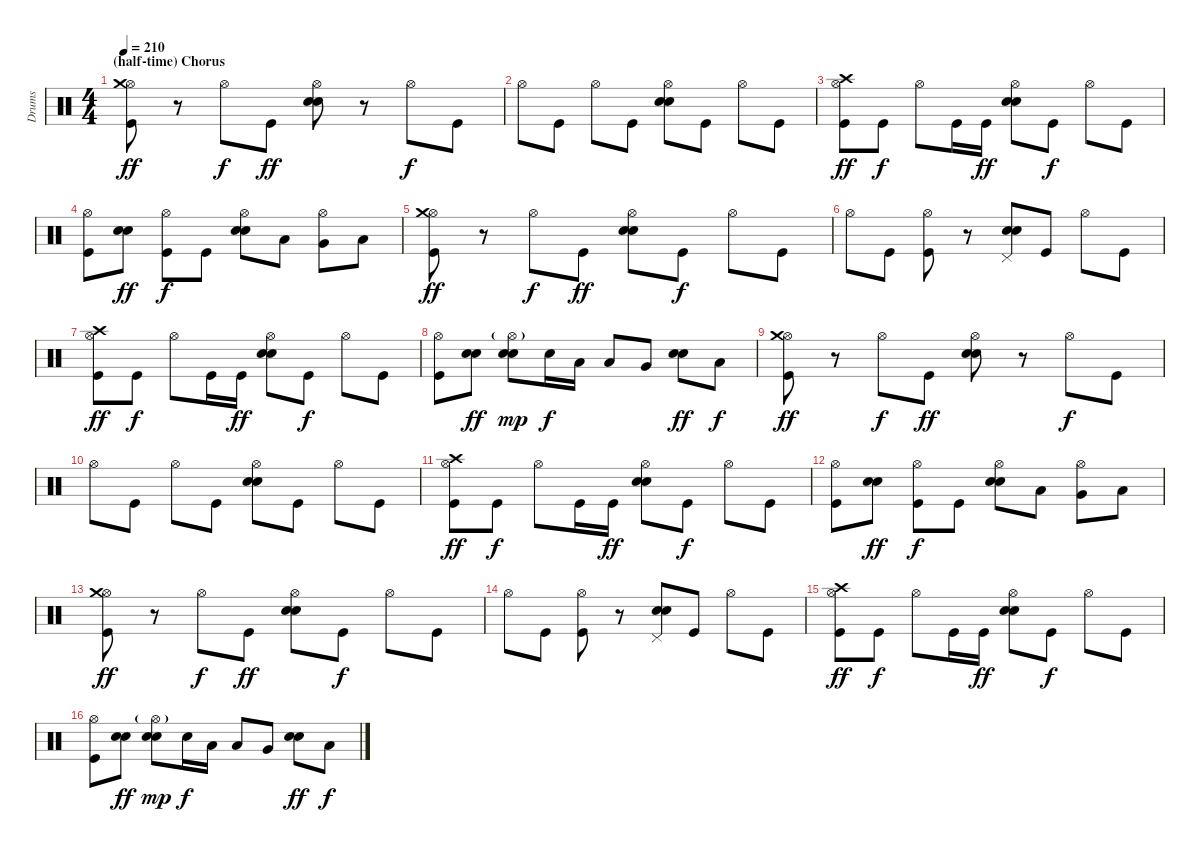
\track ("Drums" "Drums") {instrument percussion}
\staff {score}
\articulation defaults
\ts (4 4)
\section ("" "(half-time) Chorus")
\tempo 210
\clef neutral
\ks c
("Kick (hit)" "Hi-Hat (open)" "Crash medium (hit)").8{dy ff} r.8 "Hi-Hat (open)".8{dy f} "Kick (hit)".8{dy ff} ("Electric Snare (hit)" "Electric Snare (hit)" "Hi-Hat (open)").8 r.8 "Hi-Hat (open)".8{dy f} "Kick (hit)".8 |
"Hi-Hat (open)".8 "Kick (hit)".8 "Hi-Hat (open)".8 "Kick (hit)".8 ("Electric Snare (hit)" "Electric Snare (hit)" "Hi-Hat (open)").8 "Kick (hit)".8 "Hi-Hat (open)".8 "Kick (hit)".8 |
("Kick (hit)" "Hi-Hat (open)" "Crash high (hit)").8{dy ff} "Kick (hit)".8{dy f} "Hi-Hat (open)".8 "Kick (hit)".16 "Kick (hit)".16{dy ff} ("Electric Snare (hit)" "Electric Snare (hit)" "Hi-Hat (open)").8 "Kick (hit)".8{dy f} "Hi-Hat (open)".8 "Kick (hit)".8 |
("Kick (hit)" "Hi-Hat (open)").8 ("Electric Snare (hit)" "Electric Snare (hit)").8{dy ff} ("Kick (hit)" "Hi-Hat (open)").8{dy f} "Kick (hit)".8 ("Electric Snare (hit)" "Electric Snare (hit)" "Hi-Hat (open)").8 "Low Tom (hit)".8 ("Very Low Tom (hit)" "Hi-Hat (open)").8 "Low Floor Tom (hit)".8 |
("Kick (hit)" "Hi-Hat (open)" "Crash medium (hit)").8{dy ff} r.8 "Hi-Hat (open)".8{dy f} "Kick (hit)".8{dy ff} ("Electric Snare (hit)" "Electric Snare (hit)" "Hi-Hat (open)").8 "Kick (hit)".8{dy f} "Hi-Hat (open)".8 "Kick (hit)".8 |
"Hi-Hat (open)".8 "Kick (hit)".8 ("Kick (hit)" "Hi-Hat (open)").8 r.8 ("Electric Snare (hit)" "Electric Snare (hit)" "Pedal Hi-Hat (hit)").8 "Kick (hit)".8 "Hi-Hat (open)".8 "Kick (hit)".8 |
("Kick (hit)" "Hi-Hat (open)" "Crash high (hit)").8{dy ff} "Kick (hit)".8{dy f} "Hi-Hat (open)".8 "Kick (hit)".16 "Kick (hit)".16{dy ff} ("Electric Snare (hit)" "Electric Snare (hit)" "Hi-Hat (open)").8 "Kick (hit)".8{dy f} "Hi-Hat (open)".8 "Kick (hit)".8 |
("Kick (hit)" "Hi-Hat (open)").8 ("Electric Snare (hit)" "Electric Snare (hit)").8{dy ff} ("Electric Snare (hit)" "Electric Snare (hit)" "Hi-Hat (open)"{g}).8{dy mp} "Electric Snare (hit)".16{dy f} "Low Tom (hit)".16 "Low Tom (hit)".8 "Very Low Tom (hit)".8 ("Electric Snare (hit)" "Electric Snare (hit)").8{dy ff} "Low Floor Tom (hit)".8{dy f} |
("Kick (hit)" "Hi-Hat (open)" "Crash medium (hit)").8{dy ff} r.8 "Hi-Hat (open)".8{dy f} "Kick (hit)".8{dy ff} ("Electric Snare (hit)" "Electric Snare (hit)" "Hi-Hat (open)").8 r.8 "Hi-Hat (open)".8{dy f} "Kick (hit)".8 |
"Hi-Hat (open)".8 "Kick (hit)".8 "Hi-Hat (open)".8 "Kick (hit)".8 ("Electric Snare (hit)" "Electric Snare (hit)" "Hi-Hat (open)").8 "Kick (hit)".8 "Hi-Hat (open)".8 "Kick (hit)".8 |
("Kick (hit)" "Hi-Hat (open)" "Crash high (hit)").8{dy ff} "Kick (hit)".8{dy f} "Hi-Hat (open)".8 "Kick (hit)".16 "Kick (hit)".16{dy ff} ("Electric Snare (hit)" "Electric Snare (hit)" "Hi-Hat (open)").8 "Kick (hit)".8{dy f} "Hi-Hat (open)".8 "Kick (hit)".8 |
("Kick (hit)" "Hi-Hat (open)").8 ("Electric Snare (hit)" "Electric Snare (hit)").8{dy ff} ("Kick (hit)" "Hi-Hat (open)").8{dy f} "Kick (hit)".8 ("Electric Snare (hit)" "Electric Snare (hit)" "Hi-Hat (open)").8 "Low Tom (hit)".8 ("Very Low Tom (hit)" "Hi-Hat (open)").8 "Low Floor Tom (hit)".8 |
("Kick (hit)" "Hi-Hat (open)" "Crash medium (hit)").8{dy ff} r.8 "Hi-Hat (open)".8{dy f} "Kick (hit)".8{dy ff} ("Electric Snare (hit)" "Electric Snare (hit)" "Hi-Hat (open)").8 "Kick (hit)".8{dy f} "Hi-Hat (open)".8 "Kick (hit)".8 |
"Hi-Hat (open)".8 "Kick (hit)".8 ("Kick (hit)" "Hi-Hat (open)").8 r.8 ("Electric Snare (hit)" "Electric Snare (hit)" "Pedal Hi-Hat (hit)").8 "Kick (hit)".8 "Hi-Hat (open)".8 "Kick (hit)".8 |
("Kick (hit)" "Hi-Hat (open)" "Crash high (hit)").8{dy ff} "Kick (hit)".8{dy f} "Hi-Hat (open)".8 "Kick (hit)".16 "Kick (hit)".16{dy ff} ("Electric Snare (hit)" "Electric Snare (hit)" "Hi-Hat (open)").8 "Kick (hit)".8{dy f} "Hi-Hat (open)".8 "Kick (hit)".8 |
("Kick (hit)" "Hi-Hat (open)").8 ("Electric Snare (hit)" "Electric Snare (hit)").8{dy ff} ("Electric Snare (hit)" "Electric Snare (hit)" "Hi-Hat (open)"{g}).8{dy mp} "Electric Snare (hit)".16{dy f} "Low Tom (hit)".16 "Low Tom (hit)".8 "Very Low Tom (hit)".8 ("Electric Snare (hit)" "Electric Snare (hit)").8{dy ff} "Low Floor Tom (hit)".8{dy f}
